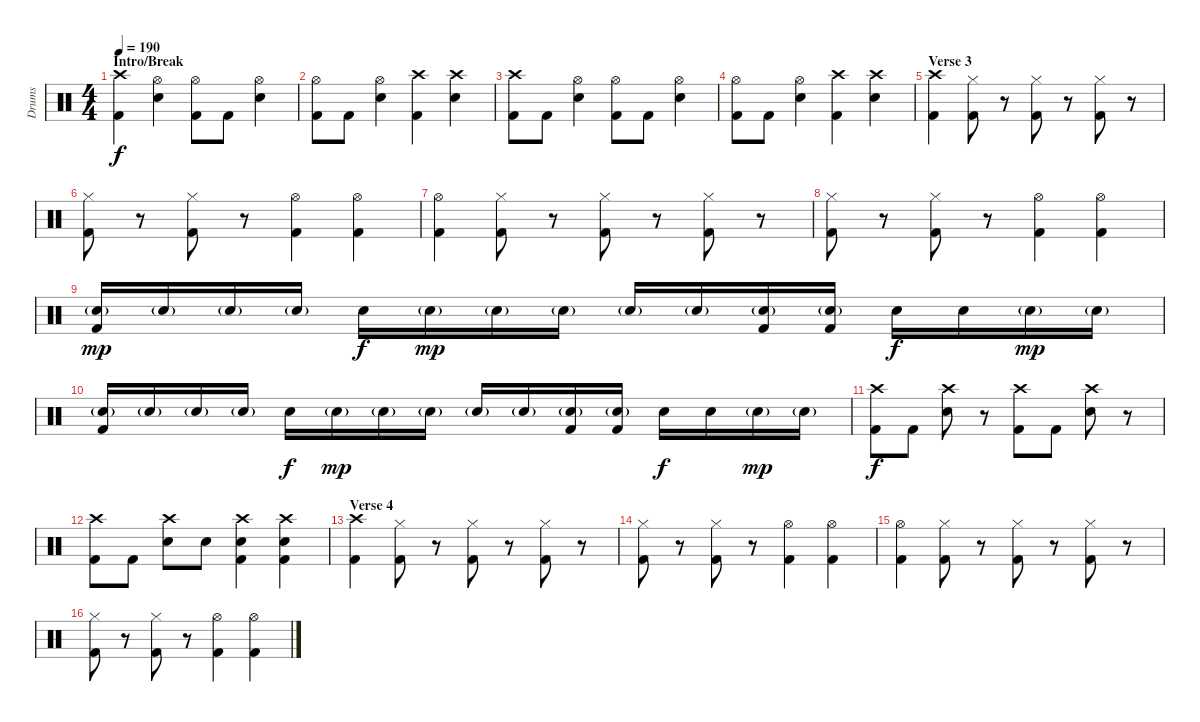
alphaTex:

\track ("Drums" "Drums") {instrument percussion}
\staff {score}
\articulation defaults
\ts (4 4)
\section ("" "Intro/Break")
\tempo 190
\clef neutral
\ks c
("Crash high (hit)" "Kick (hit) 2").4{dy f} ("Hi-Hat (open)" "Snare (hit) 2").4 ("Hi-Hat (open)" "Kick (hit) 2").8 "Kick (hit) 2".8 ("Hi-Hat (open)" "Snare (hit) 2").4 |
("Hi-Hat (open)" "Kick (hit) 2").8 "Kick (hit) 2".8 ("Hi-Hat (open)" "Snare (hit) 2").4 ("Crash high (hit)" "Kick (hit) 2").4 ("Crash high (hit)" "Snare (hit) 2").4 |
("Crash high (hit)" "Kick (hit) 2").8 "Kick (hit) 2".8 ("Hi-Hat (open)" "Snare (hit) 2").4 ("Hi-Hat (open)" "Kick (hit) 2").8 "Kick (hit) 2".8 ("Hi-Hat (open)" "Snare (hit) 2").4 |
("Hi-Hat (open)" "Kick (hit) 2").8 "Kick (hit) 2".8 ("Hi-Hat (open)" "Snare (hit) 2").4 ("Crash high (hit)" "Kick (hit) 2").4 ("Crash high (hit)" "Snare (hit) 2").4 |
\section ("" "Verse 3")
("Crash high (hit)" "Kick (hit) 2").4 ("Hi-Hat (closed)" "Kick (hit) 2").8 r.8 ("Hi-Hat (closed)" "Kick (hit) 2").8 r.8 ("Hi-Hat (closed)" "Kick (hit) 2").8 r.8 |
("Hi-Hat (closed)" "Kick (hit) 2").8 r.8 ("Hi-Hat (closed)" "Kick (hit) 2").8 r.8 ("Hi-Hat (open)" "Kick (hit) 2").4 ("Hi-Hat (open)" "Kick (hit) 2").4 |
("Hi-Hat (open)" "Kick (hit) 2").4 ("Hi-Hat (closed)" "Kick (hit) 2").8 r.8 ("Hi-Hat (closed)" "Kick (hit) 2").8 r.8 ("Hi-Hat (closed)" "Kick (hit) 2").8 r.8 |
("Hi-Hat (closed)" "Kick (hit) 2").8 r.8 ("Hi-Hat (closed)" "Kick (hit) 2").8 r.8 ("Hi-Hat (open)" "Kick (hit) 2").4 ("Hi-Hat (open)" "Kick (hit) 2").4 |
("Snare (hit) 2"{g} "Kick (hit) 2").16{dy mp} "Snare (hit) 2"{g}.16 "Snare (hit) 2"{g}.16 "Snare (hit) 2"{g}.16 "Snare (hit) 2".16{dy f} "Snare (hit) 2"{g}.16{dy mp} "Snare (hit) 2"{g}.16 "Snare (hit) 2"{g}.16 "Snare (hit) 2"{g}.16 "Snare (hit) 2"{g}.16 ("Snare (hit) 2"{g} "Kick (hit) 2").16 ("Snare (hit) 2"{g} "Kick (hit) 2").16 "Snare (hit) 2".16{dy f} "Snare (hit) 2".16 "Snare (hit) 2"{g}.16{dy mp} "Snare (hit) 2"{g}.16 |
("Snare (hit) 2"{g} "Kick (hit) 2").16 "Snare (hit) 2"{g}.16 "Snare (hit) 2"{g}.16 "Snare (hit) 2"{g}.16 "Snare (hit) 2".16{dy f} "Snare (hit) 2"{g}.16{dy mp} "Snare (hit) 2"{g}.16 "Snare (hit) 2"{g}.16 "Snare (hit) 2"{g}.16 "Snare (hit) 2"{g}.16 ("Snare (hit) 2"{g} "Kick (hit) 2").16 ("Snare (hit) 2"{g} "Kick (hit) 2").16 "Snare (hit) 2".16{dy f} "Snare (hit) 2".16 "Snare (hit) 2"{g}.16{dy mp} "Snare (hit) 2"{g}.16 |
("Crash high (hit)" "Kick (hit) 2").8{dy f} "Kick (hit) 2".8 ("Crash high (hit)" "Snare (hit) 2").8 r.8 ("Crash high (hit)" "Kick (hit) 2").8 "Kick (hit) 2".8 ("Crash high (hit)" "Snare (hit) 2").8 r.8 |
("Crash high (hit)" "Kick (hit) 2").8 "Kick (hit) 2".8 ("Crash high (hit)" "Snare (hit) 2").8 "Snare (hit) 2".8 ("Crash high (hit)" "Snare (hit) 2" "Kick (hit) 2").4 ("Crash high (hit)" "Snare (hit) 2" "Kick (hit) 2").4 |
\section ("" "Verse 4")
("Crash high (hit)" "Kick (hit) 2").4 ("Hi-Hat (closed)" "Kick (hit) 2").8 r.8 ("Hi-Hat (closed)" "Kick (hit) 2").8 r.8 ("Hi-Hat (closed)" "Kick (hit) 2").8 r.8 |
("Hi-Hat (closed)" "Kick (hit) 2").8 r.8 ("Hi-Hat (closed)" "Kick (hit) 2").8 r.8 ("Hi-Hat (open)" "Kick (hit) 2").4 ("Hi-Hat (open)" "Kick (hit) 2").4 |
("Hi-Hat (open)" "Kick (hit) 2").4 ("Hi-Hat (closed)" "Kick (hit) 2").8 r.8 ("Hi-Hat (closed)" "Kick (hit) 2").8 r.8 ("Hi-Hat (closed)" "Kick (hit) 2").8 r.8 |
("Hi-Hat (closed)" "Kick (hit) 2").8 r.8 ("Hi-Hat (closed)" "Kick (hit) 2").8 r.8 ("Hi-Hat (open)" "Kick (hit) 2").4 ("Hi-Hat (open)" "Kick (hit) 2").4
